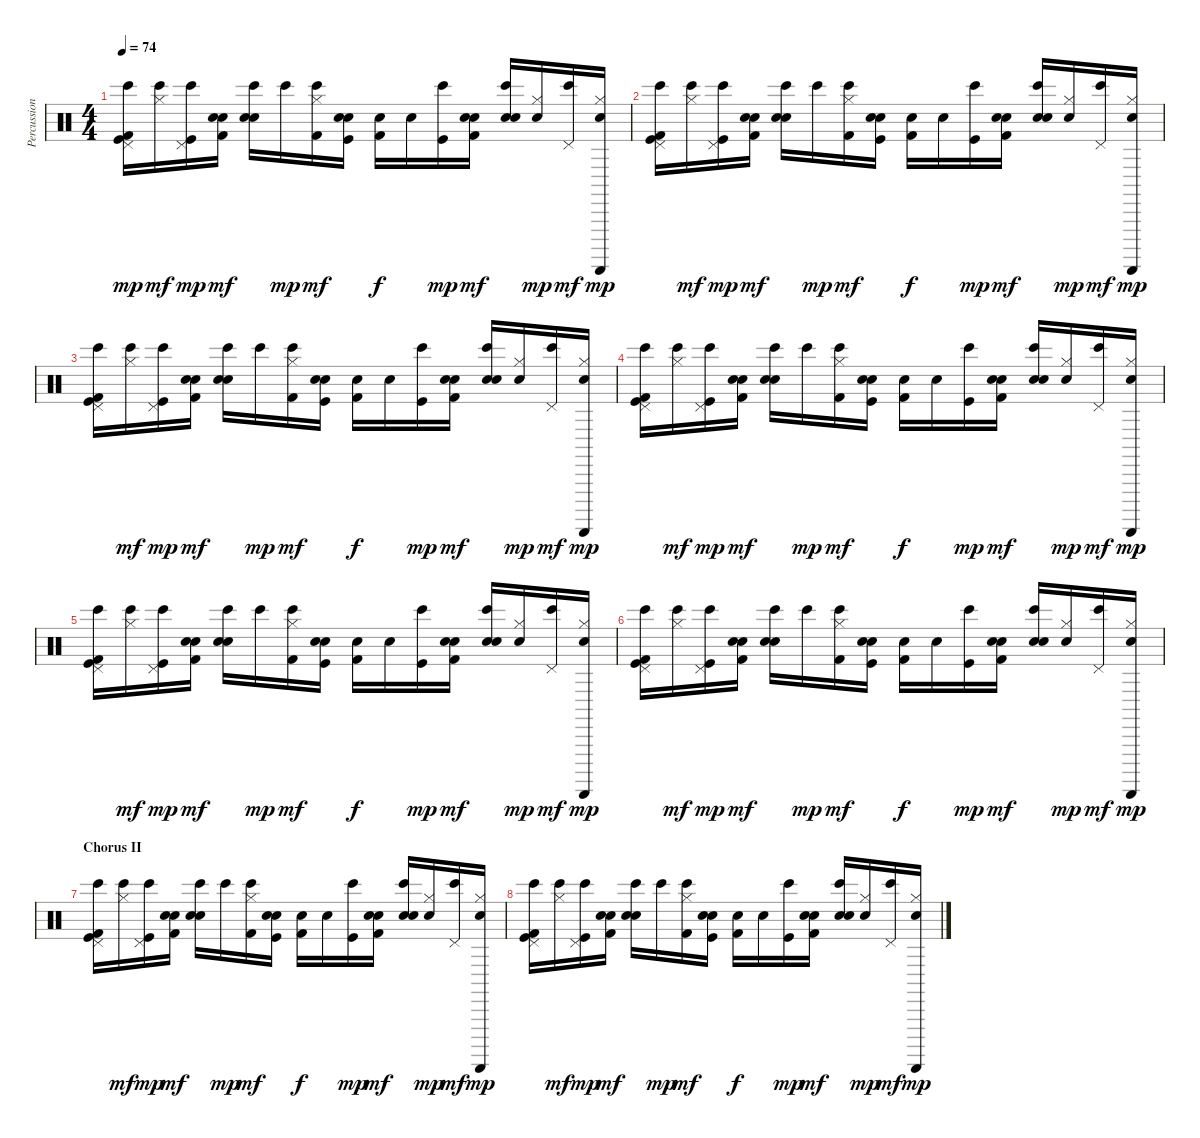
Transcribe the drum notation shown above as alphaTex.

\track ("Percussion" "Percussion") {instrument percussion}
\staff {score}
\articulation defaults
\ts (4 4)
\tempo 74
\clef neutral
\ks c
("Bongo High (hit)" "Pedal Hi-Hat (hit)" "Kick (hit) 2" "Kick (hit)").16{dy mp} ("Bongo High (hit)" "Hi-Hat (closed)").16{dy mf} ("Bongo High (hit)" "Pedal Hi-Hat (hit)" "Kick (hit)").16{dy mp} ("Snare (hit)" "Electric Snare (hit)" "Kick (hit) 2").16{dy mf} ("Bongo High (hit)" "Electric Snare (hit)" "Snare (hit) 2").16 "Bongo High (hit)".16{dy mp} ("Bongo High (hit)" "Hi-Hat (closed)" "Kick (hit) 2").16{dy mf} ("Snare (hit)" "Electric Snare (hit)" "Kick (hit)").16 ("Snare (hit)" "Kick (hit) 2").16{dy f} "Snare (hit)".16 ("Bongo High (hit)" "Kick (hit)").16{dy mp} ("Snare (hit)" "Electric Snare (hit)" "Kick (hit) 2").16{dy mf} ("Bongo High (hit)" "Electric Snare (hit)" "Snare (hit) 2").16 ("Snare (hit)" "Hi-Hat (closed)").16{dy mp} ("Bongo High (hit)" "Pedal Hi-Hat (hit)").16{dy mf} ("Snare (hit)" "Guiro (scrap-return)" "Hi-Hat (closed)").16{dy mp} |
("Bongo High (hit)" "Pedal Hi-Hat (hit)" "Kick (hit) 2" "Kick (hit)").16 ("Bongo High (hit)" "Hi-Hat (closed)").16{dy mf} ("Bongo High (hit)" "Pedal Hi-Hat (hit)" "Kick (hit)").16{dy mp} ("Snare (hit)" "Electric Snare (hit)" "Kick (hit) 2").16{dy mf} ("Bongo High (hit)" "Electric Snare (hit)" "Snare (hit) 2").16 "Bongo High (hit)".16{dy mp} ("Bongo High (hit)" "Hi-Hat (closed)" "Kick (hit) 2").16{dy mf} ("Snare (hit)" "Electric Snare (hit)" "Kick (hit)").16 ("Snare (hit)" "Kick (hit) 2").16{dy f} "Snare (hit)".16 ("Bongo High (hit)" "Kick (hit)").16{dy mp} ("Snare (hit)" "Electric Snare (hit)" "Kick (hit) 2").16{dy mf} ("Bongo High (hit)" "Electric Snare (hit)" "Snare (hit) 2").16 ("Snare (hit)" "Hi-Hat (closed)").16{dy mp} ("Bongo High (hit)" "Pedal Hi-Hat (hit)").16{dy mf} ("Snare (hit)" "Guiro (scrap-return)" "Hi-Hat (closed)").16{dy mp} |
("Bongo High (hit)" "Pedal Hi-Hat (hit)" "Kick (hit) 2" "Kick (hit)").16 ("Bongo High (hit)" "Hi-Hat (closed)").16{dy mf} ("Bongo High (hit)" "Pedal Hi-Hat (hit)" "Kick (hit)").16{dy mp} ("Snare (hit)" "Electric Snare (hit)" "Kick (hit) 2").16{dy mf} ("Bongo High (hit)" "Electric Snare (hit)" "Snare (hit) 2").16 "Bongo High (hit)".16{dy mp} ("Bongo High (hit)" "Hi-Hat (closed)" "Kick (hit) 2").16{dy mf} ("Snare (hit)" "Electric Snare (hit)" "Kick (hit)").16 ("Snare (hit)" "Kick (hit) 2").16{dy f} "Snare (hit)".16 ("Bongo High (hit)" "Kick (hit)").16{dy mp} ("Snare (hit)" "Electric Snare (hit)" "Kick (hit) 2").16{dy mf} ("Bongo High (hit)" "Electric Snare (hit)" "Snare (hit) 2").16 ("Snare (hit)" "Hi-Hat (closed)").16{dy mp} ("Bongo High (hit)" "Pedal Hi-Hat (hit)").16{dy mf} ("Snare (hit)" "Guiro (scrap-return)" "Hi-Hat (closed)").16{dy mp} |
("Bongo High (hit)" "Pedal Hi-Hat (hit)" "Kick (hit) 2" "Kick (hit)").16 ("Bongo High (hit)" "Hi-Hat (closed)").16{dy mf} ("Bongo High (hit)" "Pedal Hi-Hat (hit)" "Kick (hit)").16{dy mp} ("Snare (hit)" "Electric Snare (hit)" "Kick (hit) 2").16{dy mf} ("Bongo High (hit)" "Electric Snare (hit)" "Snare (hit) 2").16 "Bongo High (hit)".16{dy mp} ("Bongo High (hit)" "Hi-Hat (closed)" "Kick (hit) 2").16{dy mf} ("Snare (hit)" "Electric Snare (hit)" "Kick (hit)").16 ("Snare (hit)" "Kick (hit) 2").16{dy f} "Snare (hit)".16 ("Bongo High (hit)" "Kick (hit)").16{dy mp} ("Snare (hit)" "Electric Snare (hit)" "Kick (hit) 2").16{dy mf} ("Bongo High (hit)" "Electric Snare (hit)" "Snare (hit) 2").16 ("Snare (hit)" "Hi-Hat (closed)").16{dy mp} ("Bongo High (hit)" "Pedal Hi-Hat (hit)").16{dy mf} ("Snare (hit)" "Guiro (scrap-return)" "Hi-Hat (closed)").16{dy mp} |
("Bongo High (hit)" "Pedal Hi-Hat (hit)" "Kick (hit) 2" "Kick (hit)").16 ("Bongo High (hit)" "Hi-Hat (closed)").16{dy mf} ("Bongo High (hit)" "Pedal Hi-Hat (hit)" "Kick (hit)").16{dy mp} ("Snare (hit)" "Electric Snare (hit)" "Kick (hit) 2").16{dy mf} ("Bongo High (hit)" "Electric Snare (hit)" "Snare (hit) 2").16 "Bongo High (hit)".16{dy mp} ("Bongo High (hit)" "Hi-Hat (closed)" "Kick (hit) 2").16{dy mf} ("Snare (hit)" "Electric Snare (hit)" "Kick (hit)").16 ("Snare (hit)" "Kick (hit) 2").16{dy f} "Snare (hit)".16 ("Bongo High (hit)" "Kick (hit)").16{dy mp} ("Snare (hit)" "Electric Snare (hit)" "Kick (hit) 2").16{dy mf} ("Bongo High (hit)" "Electric Snare (hit)" "Snare (hit) 2").16 ("Snare (hit)" "Hi-Hat (closed)").16{dy mp} ("Bongo High (hit)" "Pedal Hi-Hat (hit)").16{dy mf} ("Snare (hit)" "Guiro (scrap-return)" "Hi-Hat (closed)").16{dy mp} |
("Bongo High (hit)" "Pedal Hi-Hat (hit)" "Kick (hit) 2" "Kick (hit)").16 ("Bongo High (hit)" "Hi-Hat (closed)").16{dy mf} ("Bongo High (hit)" "Pedal Hi-Hat (hit)" "Kick (hit)").16{dy mp} ("Snare (hit)" "Electric Snare (hit)" "Kick (hit) 2").16{dy mf} ("Bongo High (hit)" "Electric Snare (hit)" "Snare (hit) 2").16 "Bongo High (hit)".16{dy mp} ("Bongo High (hit)" "Hi-Hat (closed)" "Kick (hit) 2").16{dy mf} ("Snare (hit)" "Electric Snare (hit)" "Kick (hit)").16 ("Snare (hit)" "Kick (hit) 2").16{dy f} "Snare (hit)".16 ("Bongo High (hit)" "Kick (hit)").16{dy mp} ("Snare (hit)" "Electric Snare (hit)" "Kick (hit) 2").16{dy mf} ("Bongo High (hit)" "Electric Snare (hit)" "Snare (hit) 2").16 ("Snare (hit)" "Hi-Hat (closed)").16{dy mp} ("Bongo High (hit)" "Pedal Hi-Hat (hit)").16{dy mf} ("Snare (hit)" "Guiro (scrap-return)" "Hi-Hat (closed)").16{dy mp} |
\section ("" "Chorus II")
("Bongo High (hit)" "Pedal Hi-Hat (hit)" "Kick (hit) 2" "Kick (hit)").16 ("Bongo High (hit)" "Hi-Hat (closed)").16{dy mf} ("Bongo High (hit)" "Pedal Hi-Hat (hit)" "Kick (hit)").16{dy mp} ("Snare (hit)" "Electric Snare (hit)" "Kick (hit) 2").16{dy mf} ("Bongo High (hit)" "Electric Snare (hit)" "Snare (hit) 2").16 "Bongo High (hit)".16{dy mp} ("Bongo High (hit)" "Hi-Hat (closed)" "Kick (hit) 2").16{dy mf} ("Snare (hit)" "Electric Snare (hit)" "Kick (hit)").16 ("Snare (hit)" "Kick (hit) 2").16{dy f} "Snare (hit)".16 ("Bongo High (hit)" "Kick (hit)").16{dy mp} ("Snare (hit)" "Electric Snare (hit)" "Kick (hit) 2").16{dy mf} ("Bongo High (hit)" "Electric Snare (hit)" "Snare (hit) 2").16 ("Snare (hit)" "Hi-Hat (closed)").16{dy mp} ("Bongo High (hit)" "Pedal Hi-Hat (hit)").16{dy mf} ("Snare (hit)" "Guiro (scrap-return)" "Hi-Hat (closed)").16{dy mp} |
("Bongo High (hit)" "Pedal Hi-Hat (hit)" "Kick (hit) 2" "Kick (hit)").16 ("Bongo High (hit)" "Hi-Hat (closed)").16{dy mf} ("Bongo High (hit)" "Pedal Hi-Hat (hit)" "Kick (hit)").16{dy mp} ("Snare (hit)" "Electric Snare (hit)" "Kick (hit) 2").16{dy mf} ("Bongo High (hit)" "Electric Snare (hit)" "Snare (hit) 2").16 "Bongo High (hit)".16{dy mp} ("Bongo High (hit)" "Hi-Hat (closed)" "Kick (hit) 2").16{dy mf} ("Snare (hit)" "Electric Snare (hit)" "Kick (hit)").16 ("Snare (hit)" "Kick (hit) 2").16{dy f} "Snare (hit)".16 ("Bongo High (hit)" "Kick (hit)").16{dy mp} ("Snare (hit)" "Electric Snare (hit)" "Kick (hit) 2").16{dy mf} ("Bongo High (hit)" "Electric Snare (hit)" "Snare (hit) 2").16 ("Snare (hit)" "Hi-Hat (closed)").16{dy mp} ("Bongo High (hit)" "Pedal Hi-Hat (hit)").16{dy mf} ("Snare (hit)" "Guiro (scrap-return)" "Hi-Hat (closed)").16{dy mp}
